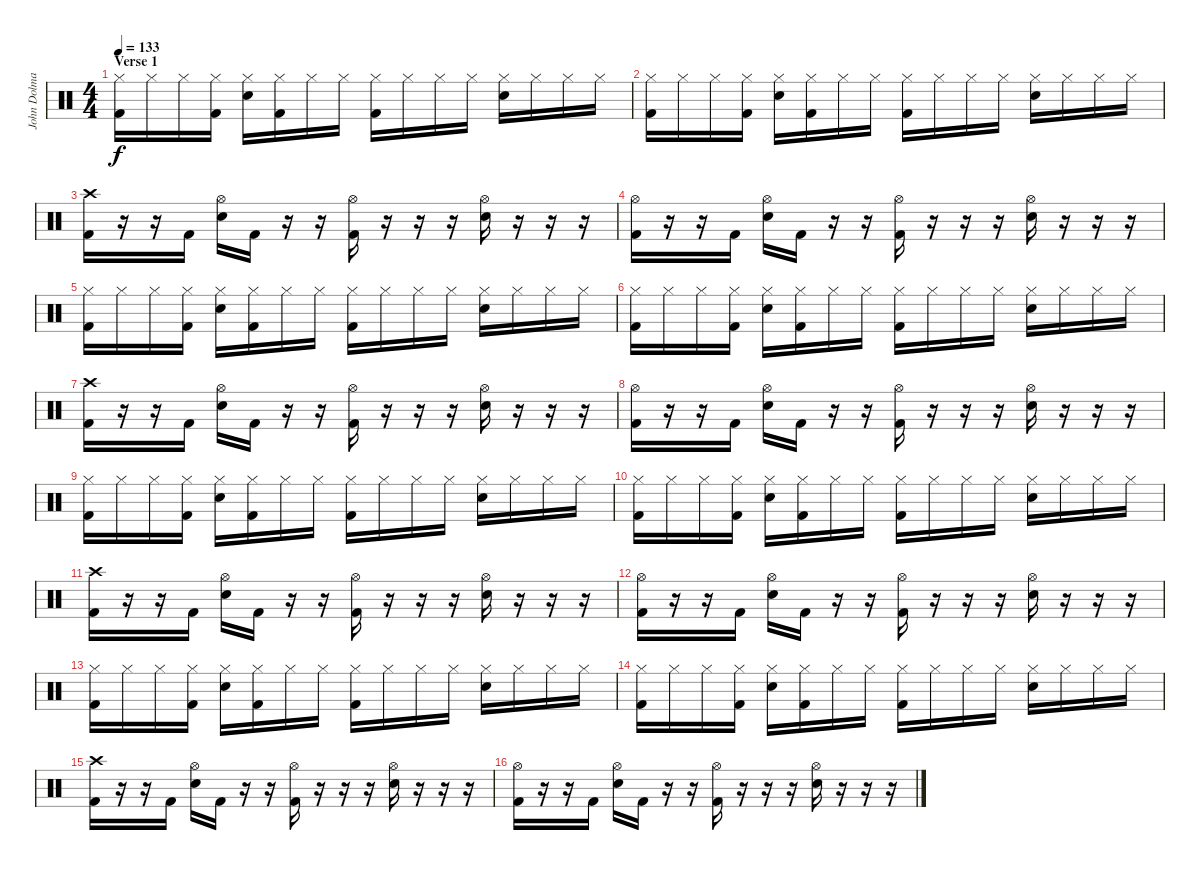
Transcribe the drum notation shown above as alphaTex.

\track ("John Dolmayan" "John Dolma") {instrument percussion}
\staff {score}
\articulation defaults
\ts (4 4)
\section ("" "Verse 1")
\tempo 133
\clef neutral
\ks c
("Hi-Hat (closed)" "Kick (hit) 2").16{dy f} "Hi-Hat (closed)".16 "Hi-Hat (closed)".16 ("Hi-Hat (closed)" "Kick (hit) 2").16 ("Hi-Hat (closed)" "Electric Snare (hit)").16 ("Hi-Hat (closed)" "Kick (hit) 2").16 "Hi-Hat (closed)".16 "Hi-Hat (closed)".16 ("Hi-Hat (closed)" "Kick (hit) 2").16 "Hi-Hat (closed)".16 "Hi-Hat (closed)".16 "Hi-Hat (closed)".16 ("Hi-Hat (closed)" "Electric Snare (hit)").16 "Hi-Hat (closed)".16 "Hi-Hat (closed)".16 "Hi-Hat (closed)".16 |
("Hi-Hat (closed)" "Kick (hit) 2").16 "Hi-Hat (closed)".16 "Hi-Hat (closed)".16 ("Hi-Hat (closed)" "Kick (hit) 2").16 ("Hi-Hat (closed)" "Electric Snare (hit)").16 ("Hi-Hat (closed)" "Kick (hit) 2").16 "Hi-Hat (closed)".16 "Hi-Hat (closed)".16 ("Hi-Hat (closed)" "Kick (hit) 2").16 "Hi-Hat (closed)".16 "Hi-Hat (closed)".16 "Hi-Hat (closed)".16 ("Hi-Hat (closed)" "Electric Snare (hit)").16 "Hi-Hat (closed)".16 "Hi-Hat (closed)".16 "Hi-Hat (closed)".16 |
("Crash high (hit)" "Kick (hit) 2").16 r.16 r.16 "Kick (hit) 2".16 ("Hi-Hat (open)" "Electric Snare (hit)").16 "Kick (hit) 2".16 r.16 r.16 ("Hi-Hat (open)" "Kick (hit) 2").16 r.16 r.16 r.16 ("Hi-Hat (open)" "Electric Snare (hit)").16 r.16 r.16 r.16 |
("Hi-Hat (open)" "Kick (hit) 2").16 r.16 r.16 "Kick (hit) 2".16 ("Hi-Hat (open)" "Electric Snare (hit)").16 "Kick (hit) 2".16 r.16 r.16 ("Hi-Hat (open)" "Kick (hit) 2").16 r.16 r.16 r.16 ("Hi-Hat (open)" "Electric Snare (hit)").16 r.16 r.16 r.16 |
("Hi-Hat (closed)" "Kick (hit) 2").16 "Hi-Hat (closed)".16 "Hi-Hat (closed)".16 ("Hi-Hat (closed)" "Kick (hit) 2").16 ("Hi-Hat (closed)" "Electric Snare (hit)").16 ("Hi-Hat (closed)" "Kick (hit) 2").16 "Hi-Hat (closed)".16 "Hi-Hat (closed)".16 ("Hi-Hat (closed)" "Kick (hit) 2").16 "Hi-Hat (closed)".16 "Hi-Hat (closed)".16 "Hi-Hat (closed)".16 ("Hi-Hat (closed)" "Electric Snare (hit)").16 "Hi-Hat (closed)".16 "Hi-Hat (closed)".16 "Hi-Hat (closed)".16 |
("Hi-Hat (closed)" "Kick (hit) 2").16 "Hi-Hat (closed)".16 "Hi-Hat (closed)".16 ("Hi-Hat (closed)" "Kick (hit) 2").16 ("Hi-Hat (closed)" "Electric Snare (hit)").16 ("Hi-Hat (closed)" "Kick (hit) 2").16 "Hi-Hat (closed)".16 "Hi-Hat (closed)".16 ("Hi-Hat (closed)" "Kick (hit) 2").16 "Hi-Hat (closed)".16 "Hi-Hat (closed)".16 "Hi-Hat (closed)".16 ("Hi-Hat (closed)" "Electric Snare (hit)").16 "Hi-Hat (closed)".16 "Hi-Hat (closed)".16 "Hi-Hat (closed)".16 |
("Crash high (hit)" "Kick (hit) 2").16 r.16 r.16 "Kick (hit) 2".16 ("Hi-Hat (open)" "Electric Snare (hit)").16 "Kick (hit) 2".16 r.16 r.16 ("Hi-Hat (open)" "Kick (hit) 2").16 r.16 r.16 r.16 ("Hi-Hat (open)" "Electric Snare (hit)").16 r.16 r.16 r.16 |
("Hi-Hat (open)" "Kick (hit) 2").16 r.16 r.16 "Kick (hit) 2".16 ("Hi-Hat (open)" "Electric Snare (hit)").16 "Kick (hit) 2".16 r.16 r.16 ("Hi-Hat (open)" "Kick (hit) 2").16 r.16 r.16 r.16 ("Hi-Hat (open)" "Electric Snare (hit)").16 r.16 r.16 r.16 |
("Hi-Hat (closed)" "Kick (hit) 2").16 "Hi-Hat (closed)".16 "Hi-Hat (closed)".16 ("Hi-Hat (closed)" "Kick (hit) 2").16 ("Hi-Hat (closed)" "Electric Snare (hit)").16 ("Hi-Hat (closed)" "Kick (hit) 2").16 "Hi-Hat (closed)".16 "Hi-Hat (closed)".16 ("Hi-Hat (closed)" "Kick (hit) 2").16 "Hi-Hat (closed)".16 "Hi-Hat (closed)".16 "Hi-Hat (closed)".16 ("Hi-Hat (closed)" "Electric Snare (hit)").16 "Hi-Hat (closed)".16 "Hi-Hat (closed)".16 "Hi-Hat (closed)".16 |
("Hi-Hat (closed)" "Kick (hit) 2").16 "Hi-Hat (closed)".16 "Hi-Hat (closed)".16 ("Hi-Hat (closed)" "Kick (hit) 2").16 ("Hi-Hat (closed)" "Electric Snare (hit)").16 ("Hi-Hat (closed)" "Kick (hit) 2").16 "Hi-Hat (closed)".16 "Hi-Hat (closed)".16 ("Hi-Hat (closed)" "Kick (hit) 2").16 "Hi-Hat (closed)".16 "Hi-Hat (closed)".16 "Hi-Hat (closed)".16 ("Hi-Hat (closed)" "Electric Snare (hit)").16 "Hi-Hat (closed)".16 "Hi-Hat (closed)".16 "Hi-Hat (closed)".16 |
("Crash high (hit)" "Kick (hit) 2").16 r.16 r.16 "Kick (hit) 2".16 ("Hi-Hat (open)" "Electric Snare (hit)").16 "Kick (hit) 2".16 r.16 r.16 ("Hi-Hat (open)" "Kick (hit) 2").16 r.16 r.16 r.16 ("Hi-Hat (open)" "Electric Snare (hit)").16 r.16 r.16 r.16 |
("Hi-Hat (open)" "Kick (hit) 2").16 r.16 r.16 "Kick (hit) 2".16 ("Hi-Hat (open)" "Electric Snare (hit)").16 "Kick (hit) 2".16 r.16 r.16 ("Hi-Hat (open)" "Kick (hit) 2").16 r.16 r.16 r.16 ("Hi-Hat (open)" "Electric Snare (hit)").16 r.16 r.16 r.16 |
("Hi-Hat (closed)" "Kick (hit) 2").16 "Hi-Hat (closed)".16 "Hi-Hat (closed)".16 ("Hi-Hat (closed)" "Kick (hit) 2").16 ("Hi-Hat (closed)" "Electric Snare (hit)").16 ("Hi-Hat (closed)" "Kick (hit) 2").16 "Hi-Hat (closed)".16 "Hi-Hat (closed)".16 ("Hi-Hat (closed)" "Kick (hit) 2").16 "Hi-Hat (closed)".16 "Hi-Hat (closed)".16 "Hi-Hat (closed)".16 ("Hi-Hat (closed)" "Electric Snare (hit)").16 "Hi-Hat (closed)".16 "Hi-Hat (closed)".16 "Hi-Hat (closed)".16 |
("Hi-Hat (closed)" "Kick (hit) 2").16 "Hi-Hat (closed)".16 "Hi-Hat (closed)".16 ("Hi-Hat (closed)" "Kick (hit) 2").16 ("Hi-Hat (closed)" "Electric Snare (hit)").16 ("Hi-Hat (closed)" "Kick (hit) 2").16 "Hi-Hat (closed)".16 "Hi-Hat (closed)".16 ("Hi-Hat (closed)" "Kick (hit) 2").16 "Hi-Hat (closed)".16 "Hi-Hat (closed)".16 "Hi-Hat (closed)".16 ("Hi-Hat (closed)" "Electric Snare (hit)").16 "Hi-Hat (closed)".16 "Hi-Hat (closed)".16 "Hi-Hat (closed)".16 |
("Crash high (hit)" "Kick (hit) 2").16 r.16 r.16 "Kick (hit) 2".16 ("Hi-Hat (open)" "Electric Snare (hit)").16 "Kick (hit) 2".16 r.16 r.16 ("Hi-Hat (open)" "Kick (hit) 2").16 r.16 r.16 r.16 ("Hi-Hat (open)" "Electric Snare (hit)").16 r.16 r.16 r.16 |
("Hi-Hat (open)" "Kick (hit) 2").16 r.16 r.16 "Kick (hit) 2".16 ("Hi-Hat (open)" "Electric Snare (hit)").16 "Kick (hit) 2".16 r.16 r.16 ("Hi-Hat (open)" "Kick (hit) 2").16 r.16 r.16 r.16 ("Hi-Hat (open)" "Electric Snare (hit)").16 r.16 r.16 r.16
